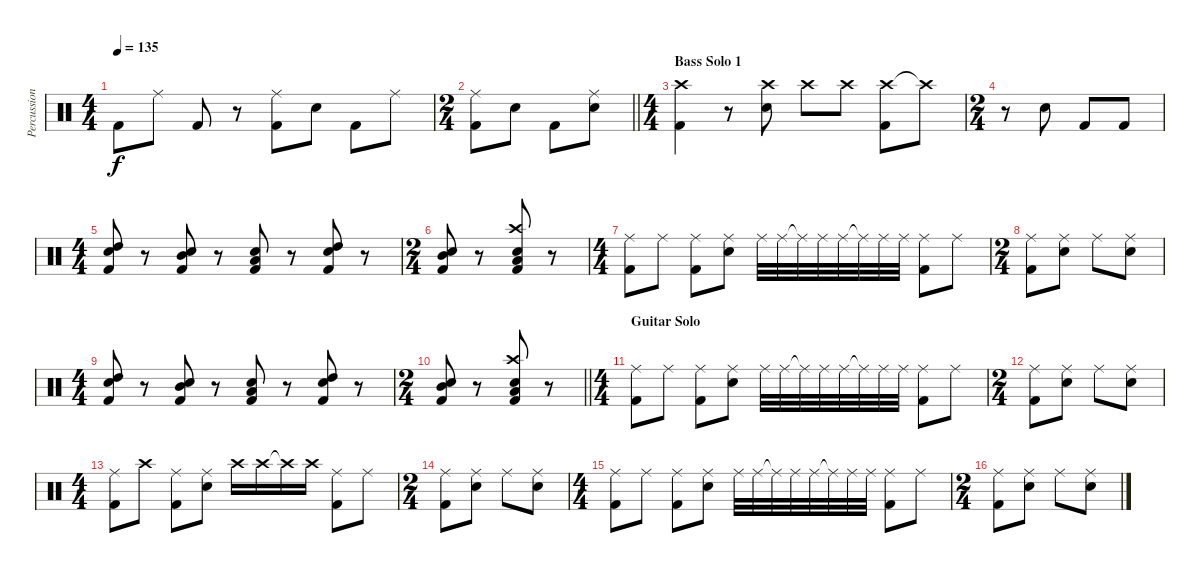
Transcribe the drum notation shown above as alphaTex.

\track ("Percussion" "Percussion") {instrument percussion}
\staff {score}
\articulation defaults
\ts (4 4)
\tempo 135
\clef neutral
\ks c "Kick (hit) 2".8{dy f} "Ride (middle)".8 "Kick (hit) 2".8
r.8 ("Ride (middle)" "Kick (hit) 2").8 "Electric Snare (hit)".8 "Kick (hit) 2".8 "Ride (middle)".8 |
\ts (2 4)
\barLineRight lightlight
("Ride (middle)" "Kick (hit) 2").8 "Electric Snare (hit)".8 "Kick (hit) 2".8 ("Ride (middle)" "Electric Snare (hit)").8 |
\ts (4 4)
\section ("" "Bass Solo 1")
("Crash high (hit)" "Kick (hit) 2").4 r.8 ("Crash high (hit)" "Electric Snare (hit)").8 "Crash high (hit)".8 "Crash high (hit)".8 ("Crash high (hit)" "Kick (hit) 2").8 "Crash high (hit)"{t}.8 |
\ts (2 4)
r.8 "Electric Snare (hit)".8 "Kick (hit) 2".8 "Kick (hit) 2".8 |
\ts (4 4)
("High Tom (hit)" "Electric Snare (hit)" "Kick (hit) 2").8 r.8 ("Mid Tom (hit)" "Electric Snare (hit)" "Kick (hit) 2").8 r.8 ("Low Tom (hit)" "Electric Snare (hit)" "Kick (hit) 2").8 r.8 ("High Tom (hit)" "Electric Snare (hit)" "Kick (hit) 2").8 r.8 |
\ts (2 4)
("Mid Tom (hit)" "Electric Snare (hit)" "Kick (hit) 2").8 r.8 ("Crash high (hit)" "Low Tom (hit)" "Electric Snare (hit)" "Kick (hit) 2").8 r.8 |
\ts (4 4)
("Ride (middle)" "Kick (hit) 2").8 "Ride (middle)".8 ("Ride (middle)" "Kick (hit) 2").8 ("Ride (middle)" "Electric Snare (hit)").8 "Ride (middle)".32 "Ride (middle)".32 "Ride (middle)"{t}.32 "Ride (middle)".32 "Ride (middle)".32 "Ride (middle)"{t}.32 "Ride (middle)".32 "Ride (middle)".32 ("Ride (middle)" "Kick (hit) 2").8 "Ride (middle)".8 |
\ts (2 4)
("Ride (middle)" "Kick (hit) 2").8 ("Ride (middle)" "Electric Snare (hit)").8 "Ride (middle)".8 ("Ride (middle)" "Electric Snare (hit)").8 |
\ts (4 4)
("High Tom (hit)" "Electric Snare (hit)" "Kick (hit) 2").8 r.8 ("Mid Tom (hit)" "Electric Snare (hit)" "Kick (hit) 2").8 r.8 ("Low Tom (hit)" "Electric Snare (hit)" "Kick (hit) 2").8 r.8 ("High Tom (hit)" "Electric Snare (hit)" "Kick (hit) 2").8 r.8 |
\ts (2 4)
\barLineRight lightlight
("Mid Tom (hit)" "Electric Snare (hit)" "Kick (hit) 2").8 r.8 ("Crash high (hit)" "Low Tom (hit)" "Electric Snare (hit)" "Kick (hit) 2").8 r.8 |
\ts (4 4)
\section ("" "Guitar Solo")
("Ride (middle)" "Kick (hit) 2").8 "Ride (middle)".8 ("Ride (middle)" "Kick (hit) 2").8 ("Ride (middle)" "Electric Snare (hit)").8 "Ride (middle)".32 "Ride (middle)".32 "Ride (middle)"{t}.32 "Ride (middle)".32 "Ride (middle)".32 "Ride (middle)"{t}.32 "Ride (middle)".32 "Ride (middle)".32 ("Ride (middle)" "Kick (hit) 2").8 "Ride (middle)".8 |
\ts (2 4)
("Ride (middle)" "Kick (hit) 2").8 ("Ride (middle)" "Electric Snare (hit)").8 "Ride (middle)".8 ("Ride (middle)" "Electric Snare (hit)").8 |
\ts (4 4)
("Ride (middle)" "Kick (hit) 2").8 "Crash high (hit)".8 ("Ride (middle)" "Kick (hit) 2").8 ("Ride (middle)" "Electric Snare (hit)").8 "Crash high (hit)".16 "Crash high (hit)".16 "Crash high (hit)"{t}.16 "Crash high (hit)".16 ("Ride (middle)" "Kick (hit) 2").8 "Ride (middle)".8 |
\ts (2 4)
("Ride (middle)" "Kick (hit) 2").8 ("Ride (middle)" "Electric Snare (hit)").8 "Ride (middle)".8 ("Ride (middle)" "Electric Snare (hit)").8 |
\ts (4 4)
("Ride (middle)" "Kick (hit) 2").8 "Ride (middle)".8 ("Ride (middle)" "Kick (hit) 2").8 ("Ride (middle)" "Electric Snare (hit)").8 "Ride (middle)".32 "Ride (middle)".32 "Ride (middle)"{t}.32 "Ride (middle)".32 "Ride (middle)".32 "Ride (middle)"{t}.32 "Ride (middle)".32 "Ride (middle)".32 ("Ride (middle)" "Kick (hit) 2").8 "Ride (middle)".8 |
\ts (2 4)
("Ride (middle)" "Kick (hit) 2").8 ("Ride (middle)" "Electric Snare (hit)").8 "Ride (middle)".8 ("Ride (middle)" "Electric Snare (hit)").8
